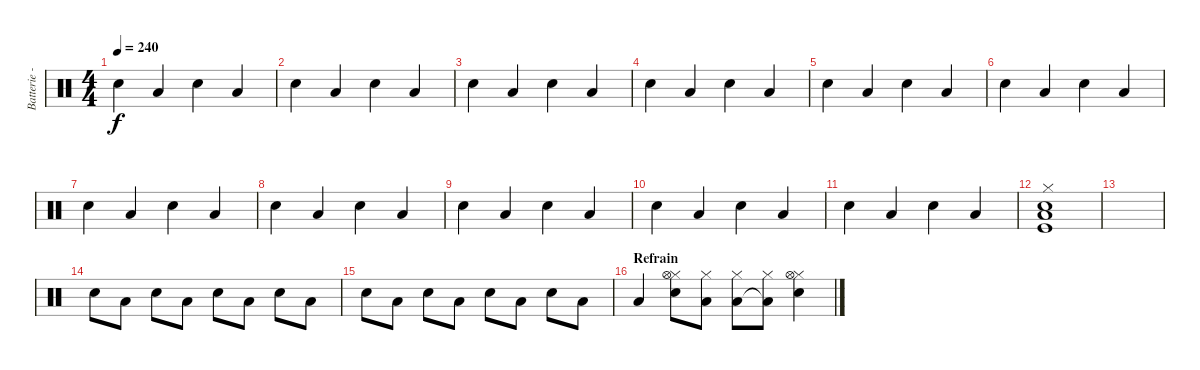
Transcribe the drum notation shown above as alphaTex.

\track ("Batterie - Guillaume" "Batterie -") {instrument percussion}
\staff {score}
\articulation defaults
\ts (4 4)
\tempo 240
\clef neutral
\ks c "Electric Snare (hit)".4{dy f} "Low Tom (hit)".4 "Electric Snare (hit)".4 "Low Tom (hit)".4
|
"Electric Snare (hit)".4 "Low Tom (hit)".4 "Electric Snare (hit)".4 "Low Tom (hit)".4 |
"Electric Snare (hit)".4 "Low Tom (hit)".4 "Electric Snare (hit)".4 "Low Tom (hit)".4 |
"Electric Snare (hit)".4 "Low Tom (hit)".4 "Electric Snare (hit)".4 "Low Tom (hit)".4 |
"Electric Snare (hit)".4 "Low Tom (hit)".4 "Electric Snare (hit)".4 "Low Tom (hit)".4 |
"Electric Snare (hit)".4 "Low Tom (hit)".4 "Electric Snare (hit)".4 "Low Tom (hit)".4 |
"Electric Snare (hit)".4 "Low Tom (hit)".4 "Electric Snare (hit)".4 "Low Tom (hit)".4 |
"Electric Snare (hit)".4 "Low Tom (hit)".4 "Electric Snare (hit)".4 "Low Tom (hit)".4 |
"Electric Snare (hit)".4 "Low Tom (hit)".4 "Electric Snare (hit)".4 "Low Tom (hit)".4 |
"Electric Snare (hit)".4 "Low Tom (hit)".4 "Electric Snare (hit)".4 "Low Tom (hit)".4 |
"Electric Snare (hit)".4 "Low Tom (hit)".4 "Electric Snare (hit)".4 "Low Tom (hit)".4 |
("Hi-Hat (closed)" "Low Tom (hit)" "Electric Snare (hit)" "Kick (hit)").1 |
|
"Electric Snare (hit)".8 "Low Tom (hit)".8 "Electric Snare (hit)".8 "Low Tom (hit)".8 "Electric Snare (hit)".8 "Low Tom (hit)".8 "Electric Snare (hit)".8 "Low Tom (hit)".8 |
"Electric Snare (hit)".8 "Low Tom (hit)".8 "Electric Snare (hit)".8 "Low Tom (hit)".8 "Electric Snare (hit)".8 "Low Tom (hit)".8 "Electric Snare (hit)".8 "Low Tom (hit)".8 |
\section ("" "Refrain")
"Low Tom (hit)".4 ("Hi-Hat (closed)" "Hi-Hat (open)" "Electric Snare (hit)").8 ("Hi-Hat (closed)" "Low Tom (hit)").8 ("Hi-Hat (closed)" "Low Tom (hit)").8 ("Hi-Hat (closed)" "Low Tom (hit)"{t}).8 ("Hi-Hat (closed)" "Hi-Hat (open)" "Electric Snare (hit)").4
